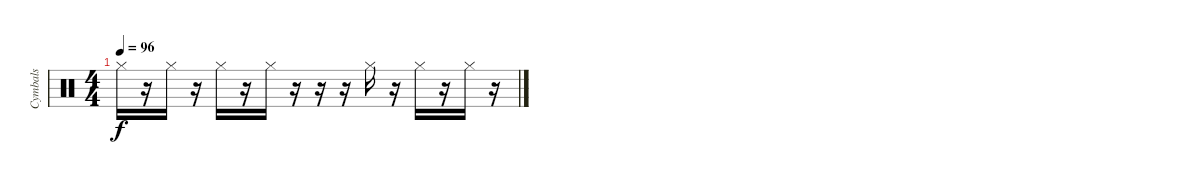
\track ("Cymbals" "Cymbals") {instrument percussion}
\staff {score}
\articulation defaults
\ts (4 4)
\tempo 96
\clef neutral
\ks c "Hi-Hat (closed)".16{dy f volume 0}
r.16 "Hi-Hat (closed)".16 r.16 "Hi-Hat (closed)".16 r.16 "Hi-Hat (closed)".16 r.16 r.16 r.16 "Hi-Hat (closed)".16 r.16 "Hi-Hat (closed)".16 r.16 "Hi-Hat (closed)".16 r.16
